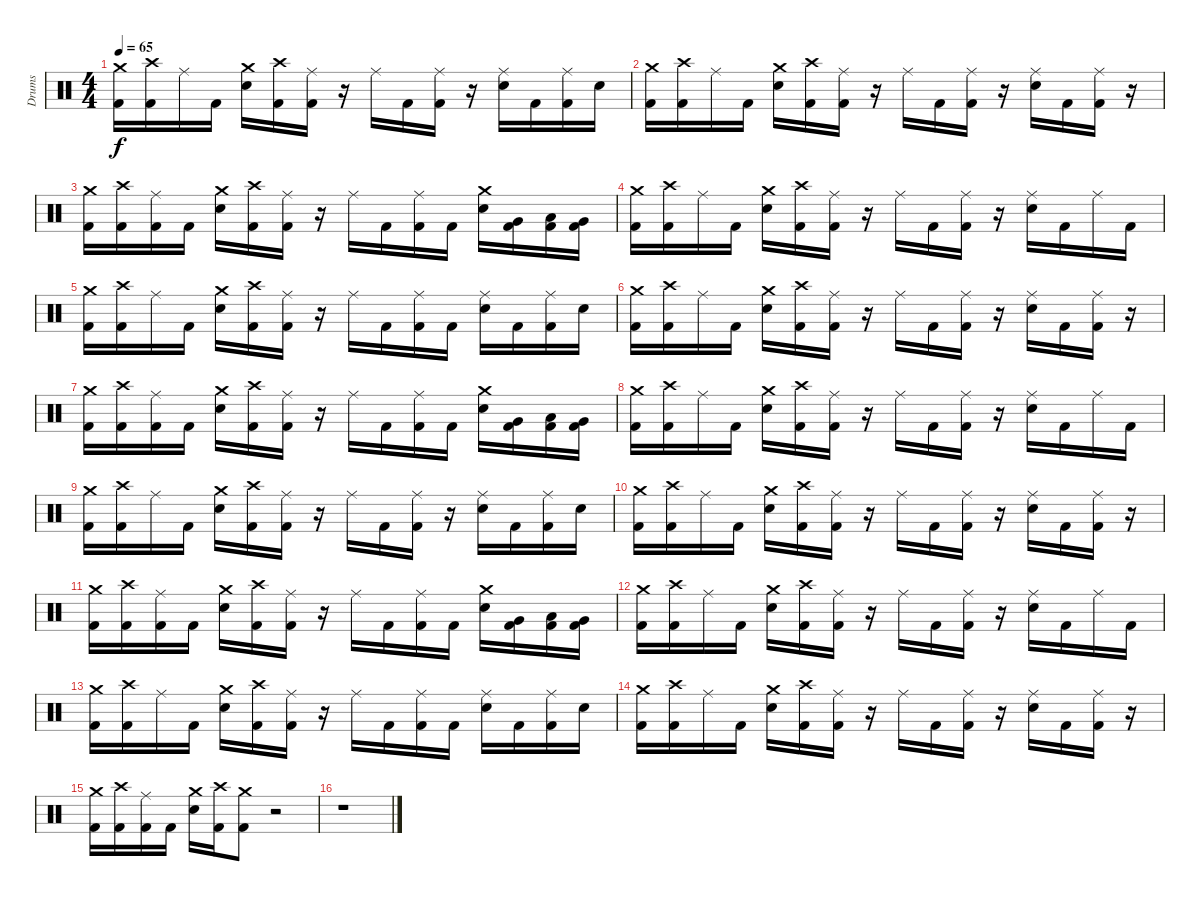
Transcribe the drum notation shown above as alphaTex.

\track ("Drums" "Drums") {instrument percussion}
\staff {score}
\articulation defaults
\ts (4 4)
\tempo 65
\clef neutral
\ks c
("Crash medium (hit)" "Kick (hit) 2").16{dy f} ("Crash high (hit)" "Kick (hit) 2").16 "Ride (middle)".16 "Kick (hit) 2".16 ("Crash medium (hit)" "Electric Snare (hit)").16 ("Crash high (hit)" "Kick (hit) 2").16 ("Ride (middle)" "Kick (hit) 2").16 r.16 "Ride (middle)".16 "Kick (hit) 2".16 ("Ride (middle)" "Kick (hit) 2").16 r.16 ("Ride (middle)" "Electric Snare (hit)").16 "Kick (hit) 2".16 ("Ride (middle)" "Kick (hit) 2").16 "Electric Snare (hit)".16 |
("Crash medium (hit)" "Kick (hit) 2").16 ("Crash high (hit)" "Kick (hit) 2").16 "Ride (middle)".16 "Kick (hit) 2".16 ("Crash medium (hit)" "Electric Snare (hit)").16 ("Crash high (hit)" "Kick (hit) 2").16 ("Ride (middle)" "Kick (hit) 2").16 r.16 "Ride (middle)".16 "Kick (hit) 2".16 ("Ride (middle)" "Kick (hit) 2").16 r.16 ("Ride (middle)" "Electric Snare (hit)").16 "Kick (hit) 2".16 ("Ride (middle)" "Kick (hit) 2").16 r.16 |
("Crash medium (hit)" "Kick (hit) 2").16 ("Crash high (hit)" "Kick (hit) 2").16 ("Ride (middle)" "Kick (hit) 2").16 "Kick (hit) 2".16 ("Crash medium (hit)" "Electric Snare (hit)").16 ("Crash high (hit)" "Kick (hit) 2").16 ("Ride (middle)" "Kick (hit) 2").16 r.16 "Ride (middle)".16 "Kick (hit) 2".16 ("Ride (middle)" "Kick (hit) 2").16 "Kick (hit) 2".16 ("Crash medium (hit)" "Electric Snare (hit)").16 ("Very Low Tom (hit)" "Kick (hit) 2").16 ("Low Tom (hit)" "Kick (hit) 2").16 ("Very Low Tom (hit)" "Kick (hit) 2").16 |
("Crash medium (hit)" "Kick (hit) 2").16 ("Crash high (hit)" "Kick (hit) 2").16 "Ride (middle)".16 "Kick (hit) 2".16 ("Crash medium (hit)" "Electric Snare (hit)").16 ("Crash high (hit)" "Kick (hit) 2").16 ("Ride (middle)" "Kick (hit) 2").16 r.16 "Ride (middle)".16 "Kick (hit) 2".16 ("Ride (middle)" "Kick (hit) 2").16 r.16 ("Ride (middle)" "Electric Snare (hit)").16 "Kick (hit) 2".16 "Ride (middle)".16 "Kick (hit) 2".16 |
("Crash medium (hit)" "Kick (hit) 2").16 ("Crash high (hit)" "Kick (hit) 2").16 "Ride (middle)".16 "Kick (hit) 2".16 ("Crash medium (hit)" "Electric Snare (hit)").16 ("Crash high (hit)" "Kick (hit) 2").16 ("Ride (middle)" "Kick (hit) 2").16 r.16 "Ride (middle)".16 "Kick (hit) 2".16 ("Ride (middle)" "Kick (hit) 2").16 "Kick (hit) 2".16 ("Ride (middle)" "Electric Snare (hit)").16 "Kick (hit) 2".16 ("Ride (middle)" "Kick (hit) 2").16 "Electric Snare (hit)".16 |
("Crash medium (hit)" "Kick (hit) 2").16 ("Crash high (hit)" "Kick (hit) 2").16 "Ride (middle)".16 "Kick (hit) 2".16 ("Crash medium (hit)" "Electric Snare (hit)").16 ("Crash high (hit)" "Kick (hit) 2").16 ("Ride (middle)" "Kick (hit) 2").16 r.16 "Ride (middle)".16 "Kick (hit) 2".16 ("Ride (middle)" "Kick (hit) 2").16 r.16 ("Ride (middle)" "Electric Snare (hit)").16 "Kick (hit) 2".16 ("Ride (middle)" "Kick (hit) 2").16 r.16 |
("Crash medium (hit)" "Kick (hit) 2").16 ("Crash high (hit)" "Kick (hit) 2").16 ("Ride (middle)" "Kick (hit) 2").16 "Kick (hit) 2".16 ("Crash medium (hit)" "Electric Snare (hit)").16 ("Crash high (hit)" "Kick (hit) 2").16 ("Ride (middle)" "Kick (hit) 2").16 r.16 "Ride (middle)".16 "Kick (hit) 2".16 ("Ride (middle)" "Kick (hit) 2").16 "Kick (hit) 2".16 ("Crash medium (hit)" "Electric Snare (hit)").16 ("Very Low Tom (hit)" "Kick (hit) 2").16 ("Low Tom (hit)" "Kick (hit) 2").16 ("Very Low Tom (hit)" "Kick (hit) 2").16 |
("Crash medium (hit)" "Kick (hit) 2").16 ("Crash high (hit)" "Kick (hit) 2").16 "Ride (middle)".16 "Kick (hit) 2".16 ("Crash medium (hit)" "Electric Snare (hit)").16 ("Crash high (hit)" "Kick (hit) 2").16 ("Ride (middle)" "Kick (hit) 2").16 r.16 "Ride (middle)".16 "Kick (hit) 2".16 ("Ride (middle)" "Kick (hit) 2").16 r.16 ("Ride (middle)" "Electric Snare (hit)").16 "Kick (hit) 2".16 "Ride (middle)".16 "Kick (hit) 2".16 |
("Crash medium (hit)" "Kick (hit) 2").16 ("Crash high (hit)" "Kick (hit) 2").16 "Ride (middle)".16 "Kick (hit) 2".16 ("Crash medium (hit)" "Electric Snare (hit)").16 ("Crash high (hit)" "Kick (hit) 2").16 ("Ride (middle)" "Kick (hit) 2").16 r.16 "Ride (middle)".16 "Kick (hit) 2".16 ("Ride (middle)" "Kick (hit) 2").16 r.16 ("Ride (middle)" "Electric Snare (hit)").16 "Kick (hit) 2".16 ("Ride (middle)" "Kick (hit) 2").16 "Electric Snare (hit)".16 |
("Crash medium (hit)" "Kick (hit) 2").16 ("Crash high (hit)" "Kick (hit) 2").16 "Ride (middle)".16 "Kick (hit) 2".16 ("Crash medium (hit)" "Electric Snare (hit)").16 ("Crash high (hit)" "Kick (hit) 2").16 ("Ride (middle)" "Kick (hit) 2").16 r.16 "Ride (middle)".16 "Kick (hit) 2".16 ("Ride (middle)" "Kick (hit) 2").16 r.16 ("Ride (middle)" "Electric Snare (hit)").16 "Kick (hit) 2".16 ("Ride (middle)" "Kick (hit) 2").16 r.16 |
("Crash medium (hit)" "Kick (hit) 2").16 ("Crash high (hit)" "Kick (hit) 2").16 ("Ride (middle)" "Kick (hit) 2").16 "Kick (hit) 2".16 ("Crash medium (hit)" "Electric Snare (hit)").16 ("Crash high (hit)" "Kick (hit) 2").16 ("Ride (middle)" "Kick (hit) 2").16 r.16 "Ride (middle)".16 "Kick (hit) 2".16 ("Ride (middle)" "Kick (hit) 2").16 "Kick (hit) 2".16 ("Crash medium (hit)" "Electric Snare (hit)").16 ("Very Low Tom (hit)" "Kick (hit) 2").16 ("Low Tom (hit)" "Kick (hit) 2").16 ("Very Low Tom (hit)" "Kick (hit) 2").16 |
("Crash medium (hit)" "Kick (hit) 2").16 ("Crash high (hit)" "Kick (hit) 2").16 "Ride (middle)".16 "Kick (hit) 2".16 ("Crash medium (hit)" "Electric Snare (hit)").16 ("Crash high (hit)" "Kick (hit) 2").16 ("Ride (middle)" "Kick (hit) 2").16 r.16 "Ride (middle)".16 "Kick (hit) 2".16 ("Ride (middle)" "Kick (hit) 2").16 r.16 ("Ride (middle)" "Electric Snare (hit)").16 "Kick (hit) 2".16 "Ride (middle)".16 "Kick (hit) 2".16 |
("Crash medium (hit)" "Kick (hit) 2").16 ("Crash high (hit)" "Kick (hit) 2").16 "Ride (middle)".16 "Kick (hit) 2".16 ("Crash medium (hit)" "Electric Snare (hit)").16 ("Crash high (hit)" "Kick (hit) 2").16 ("Ride (middle)" "Kick (hit) 2").16 r.16 "Ride (middle)".16 "Kick (hit) 2".16 ("Ride (middle)" "Kick (hit) 2").16 "Kick (hit) 2".16 ("Ride (middle)" "Electric Snare (hit)").16 "Kick (hit) 2".16 ("Ride (middle)" "Kick (hit) 2").16 "Electric Snare (hit)".16 |
("Crash medium (hit)" "Kick (hit) 2").16 ("Crash high (hit)" "Kick (hit) 2").16 "Ride (middle)".16 "Kick (hit) 2".16 ("Crash medium (hit)" "Electric Snare (hit)").16 ("Crash high (hit)" "Kick (hit) 2").16 ("Ride (middle)" "Kick (hit) 2").16 r.16 "Ride (middle)".16 "Kick (hit) 2".16 ("Ride (middle)" "Kick (hit) 2").16 r.16 ("Ride (middle)" "Electric Snare (hit)").16 "Kick (hit) 2".16 ("Ride (middle)" "Kick (hit) 2").16 r.16 |
\section ("" "")
("Crash medium (hit)" "Kick (hit) 2").16 ("Crash high (hit)" "Kick (hit) 2").16 ("Ride (middle)" "Kick (hit) 2").16 "Kick (hit) 2".16 ("Crash medium (hit)" "Electric Snare (hit)").16 ("Crash high (hit)" "Kick (hit) 2").16 ("Crash medium (hit)" "Kick (hit) 2").8 r.2 |
r.1
